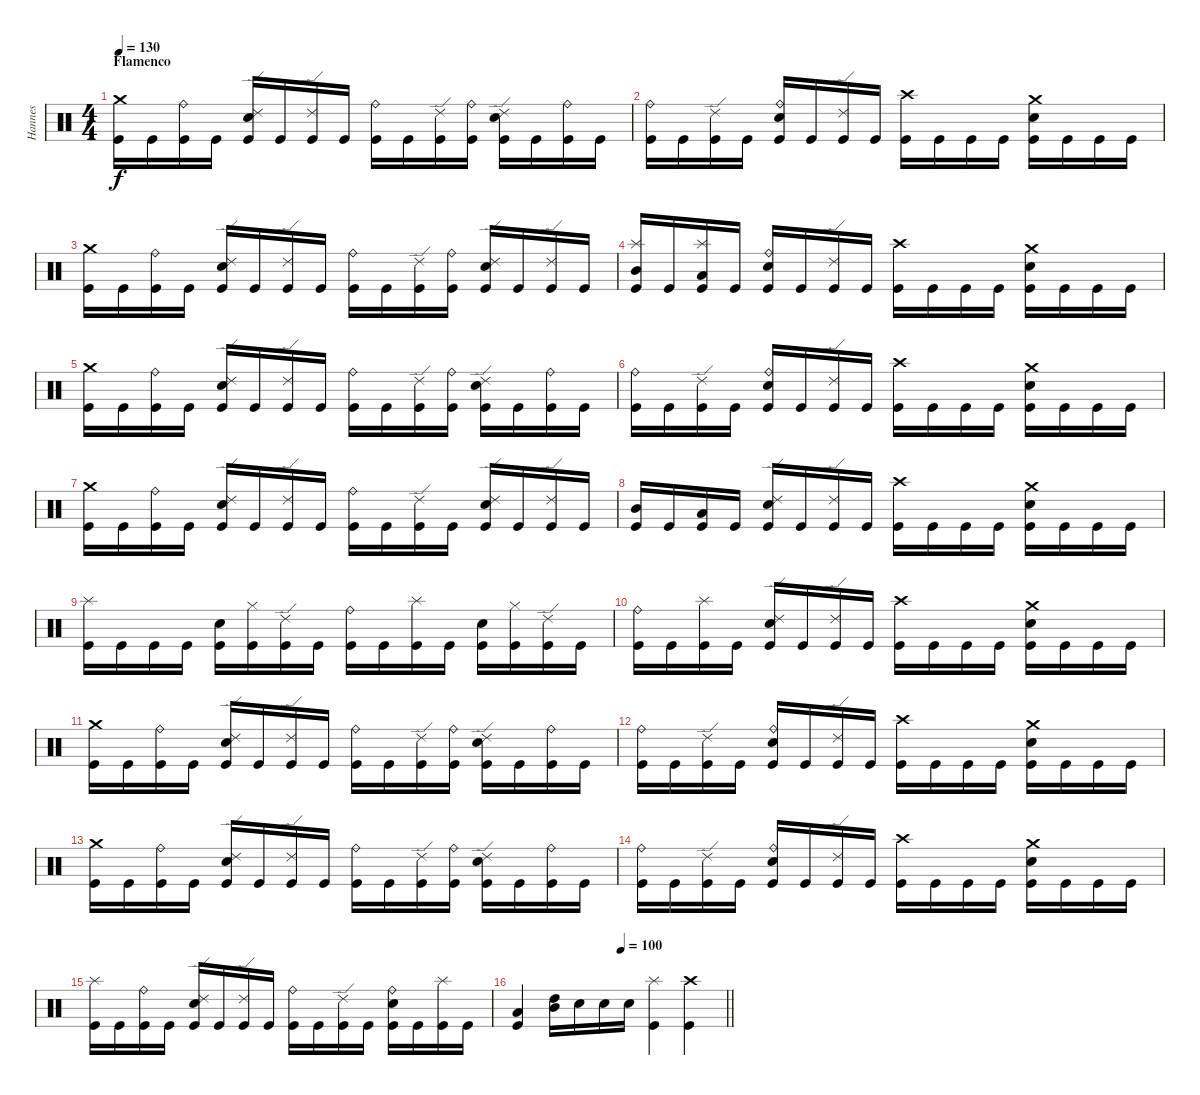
\track ("Hannes" "Hannes") {instrument percussion}
\staff {score}
\articulation defaults
\ts (4 4)
\section ("" "Flamenco")
\tempo 130
\clef neutral
\ks c
("Crash medium (hit)" "Kick (hit)").16{dy f} "Kick (hit)".16 ("Ride (bell)" "Kick (hit)").16 "Kick (hit)".16 ("Ride (edge) 2" "Electric Snare (hit)" "Kick (hit)").16 "Kick (hit)".16 ("Ride (edge) 2" "Kick (hit)").16 "Kick (hit)".16 ("Ride (bell)" "Kick (hit)").16 "Kick (hit)".16 ("Ride (edge) 2" "Kick (hit)").16 ("Ride (bell)" "Kick (hit)").16 ("Ride (edge) 2" "Electric Snare (hit)" "Kick (hit)").16 "Kick (hit)".16 ("Ride (bell)" "Kick (hit)").16 "Kick (hit)".16 |
("Ride (bell)" "Kick (hit)").16 "Kick (hit)".16 ("Ride (edge) 2" "Kick (hit)").16 "Kick (hit)".16 ("Ride (bell)" "Electric Snare (hit)" "Kick (hit)").16 "Kick (hit)".16 ("Ride (edge) 2" "Kick (hit)").16 "Kick (hit)".16 ("Crash high (hit)" "Kick (hit)").16 "Kick (hit)".16 "Kick (hit)".16 "Kick (hit)".16 ("Crash medium (hit)" "Electric Snare (hit)" "Kick (hit)").16 "Kick (hit)".16 "Kick (hit)".16 "Kick (hit)".16 |
("Crash medium (hit)" "Kick (hit)").16 "Kick (hit)".16 ("Ride (bell)" "Kick (hit)").16 "Kick (hit)".16 ("Ride (edge) 2" "Electric Snare (hit)" "Kick (hit)").16 "Kick (hit)".16 ("Ride (edge) 2" "Kick (hit)").16 "Kick (hit)".16 ("Ride (bell)" "Kick (hit)").16 "Kick (hit)".16 ("Ride (edge) 2" "Kick (hit)").16 ("Ride (bell)" "Kick (hit)").16 ("Ride (edge) 2" "Electric Snare (hit)" "Kick (hit)").16 "Kick (hit)".16 ("Ride (edge) 2" "Kick (hit)").16 "Kick (hit)".16 |
("Splash (hit)" "Mid Tom (hit)" "Kick (hit)").16 "Kick (hit)".16 ("Splash (hit)" "Low Tom (hit)" "Kick (hit)").16 "Kick (hit)".16 ("Ride (bell)" "Electric Snare (hit)" "Kick (hit)").16 "Kick (hit)".16 ("Ride (edge) 2" "Kick (hit)").16 "Kick (hit)".16 ("Crash high (hit)" "Kick (hit)").16 "Kick (hit)".16 "Kick (hit)".16 "Kick (hit)".16 ("Crash medium (hit)" "Electric Snare (hit)" "Kick (hit)").16 "Kick (hit)".16 "Kick (hit)".16 "Kick (hit)".16 |
("Crash medium (hit)" "Kick (hit)").16 "Kick (hit)".16 ("Ride (bell)" "Kick (hit)").16 "Kick (hit)".16 ("Ride (edge) 2" "Electric Snare (hit)" "Kick (hit)").16 "Kick (hit)".16 ("Ride (edge) 2" "Kick (hit)").16 "Kick (hit)".16 ("Ride (bell)" "Kick (hit)").16 "Kick (hit)".16 ("Ride (edge) 2" "Kick (hit)").16 ("Ride (bell)" "Kick (hit)").16 ("Ride (edge) 2" "Electric Snare (hit)" "Kick (hit)").16 "Kick (hit)".16 ("Ride (bell)" "Kick (hit)").16 "Kick (hit)".16 |
("Ride (bell)" "Kick (hit)").16 "Kick (hit)".16 ("Ride (edge) 2" "Kick (hit)").16 "Kick (hit)".16 ("Ride (bell)" "Electric Snare (hit)" "Kick (hit)").16 "Kick (hit)".16 ("Ride (edge) 2" "Kick (hit)").16 "Kick (hit)".16 ("Crash high (hit)" "Kick (hit)").16 "Kick (hit)".16 "Kick (hit)".16 "Kick (hit)".16 ("Crash medium (hit)" "Electric Snare (hit)" "Kick (hit)").16 "Kick (hit)".16 "Kick (hit)".16 "Kick (hit)".16 |
("Crash medium (hit)" "Kick (hit)").16 "Kick (hit)".16 ("Ride (bell)" "Kick (hit)").16 "Kick (hit)".16 ("Ride (edge) 2" "Electric Snare (hit)" "Kick (hit)").16 "Kick (hit)".16 ("Ride (edge) 2" "Kick (hit)").16 "Kick (hit)".16 ("Ride (bell)" "Kick (hit)").16 "Kick (hit)".16 ("Ride (edge) 2" "Kick (hit)").16 "Kick (hit)".16 ("Ride (edge) 2" "Electric Snare (hit)" "Kick (hit)").16 "Kick (hit)".16 ("Ride (edge) 2" "Kick (hit)").16 "Kick (hit)".16 |
("Mid Tom (hit)" "Kick (hit)").16 "Kick (hit)".16 ("Low Tom (hit)" "Kick (hit)").16 "Kick (hit)".16 ("Ride (edge) 2" "Electric Snare (hit)" "Kick (hit)").16 "Kick (hit)".16 ("Ride (edge) 2" "Kick (hit)").16 "Kick (hit)".16 ("Crash high (hit)" "Kick (hit)").16 "Kick (hit)".16 "Kick (hit)".16 "Kick (hit)".16 ("Crash medium (hit)" "Electric Snare (hit)" "Kick (hit)").16 "Kick (hit)".16 "Kick (hit)".16 "Kick (hit)".16 |
("Splash (hit)" "Kick (hit)").16 "Kick (hit)".16 "Kick (hit)".16 "Kick (hit)".16 ("Electric Snare (hit)" "Kick (hit)").16 ("Hi-Hat (closed)" "Kick (hit)").16 ("Ride (edge) 2" "Kick (hit)").16 "Kick (hit)".16 ("Ride (bell)" "Kick (hit)").16 "Kick (hit)".16 ("Splash (hit)" "Kick (hit)").16 "Kick (hit)".16 ("Electric Snare (hit)" "Kick (hit)").16 ("Hi-Hat (closed)" "Kick (hit)").16 ("Ride (edge) 2" "Kick (hit)").16 "Kick (hit)".16 |
("Ride (bell)" "Kick (hit)").16 "Kick (hit)".16 ("Splash (hit)" "Kick (hit)").16 "Kick (hit)".16 ("Ride (edge) 2" "Electric Snare (hit)" "Kick (hit)").16 "Kick (hit)".16 ("Ride (edge) 2" "Kick (hit)").16 "Kick (hit)".16 ("Crash high (hit)" "Kick (hit)").16 "Kick (hit)".16 "Kick (hit)".16 "Kick (hit)".16 ("Crash medium (hit)" "Electric Snare (hit)" "Kick (hit)").16 "Kick (hit)".16 "Kick (hit)".16 "Kick (hit)".16 |
("Crash medium (hit)" "Kick (hit)").16 "Kick (hit)".16 ("Ride (bell)" "Kick (hit)").16 "Kick (hit)".16 ("Ride (edge) 2" "Electric Snare (hit)" "Kick (hit)").16 "Kick (hit)".16 ("Ride (edge) 2" "Kick (hit)").16 "Kick (hit)".16 ("Ride (bell)" "Kick (hit)").16 "Kick (hit)".16 ("Ride (edge) 2" "Kick (hit)").16 ("Ride (bell)" "Kick (hit)").16 ("Ride (edge) 2" "Electric Snare (hit)" "Kick (hit)").16 "Kick (hit)".16 ("Ride (bell)" "Kick (hit)").16 "Kick (hit)".16 |
("Ride (bell)" "Kick (hit)").16 "Kick (hit)".16 ("Ride (edge) 2" "Kick (hit)").16 "Kick (hit)".16 ("Ride (bell)" "Electric Snare (hit)" "Kick (hit)").16 "Kick (hit)".16 ("Ride (edge) 2" "Kick (hit)").16 "Kick (hit)".16 ("Crash high (hit)" "Kick (hit)").16 "Kick (hit)".16 "Kick (hit)".16 "Kick (hit)".16 ("Crash medium (hit)" "Electric Snare (hit)" "Kick (hit)").16 "Kick (hit)".16 "Kick (hit)".16 "Kick (hit)".16 |
("Crash medium (hit)" "Kick (hit)").16 "Kick (hit)".16 ("Ride (bell)" "Kick (hit)").16 "Kick (hit)".16 ("Ride (edge) 2" "Electric Snare (hit)" "Kick (hit)").16 "Kick (hit)".16 ("Ride (edge) 2" "Kick (hit)").16 "Kick (hit)".16 ("Ride (bell)" "Kick (hit)").16 "Kick (hit)".16 ("Ride (edge) 2" "Kick (hit)").16 ("Ride (bell)" "Kick (hit)").16 ("Ride (edge) 2" "Electric Snare (hit)" "Kick (hit)").16 "Kick (hit)".16 ("Ride (bell)" "Kick (hit)").16 "Kick (hit)".16 |
("Ride (bell)" "Kick (hit)").16 "Kick (hit)".16 ("Ride (edge) 2" "Kick (hit)").16 "Kick (hit)".16 ("Ride (bell)" "Electric Snare (hit)" "Kick (hit)").16 "Kick (hit)".16 ("Ride (edge) 2" "Kick (hit)").16 "Kick (hit)".16 ("Crash high (hit)" "Kick (hit)").16 "Kick (hit)".16 "Kick (hit)".16 "Kick (hit)".16 ("Crash medium (hit)" "Electric Snare (hit)" "Kick (hit)").16 "Kick (hit)".16 "Kick (hit)".16 "Kick (hit)".16 |
("Splash (hit)" "Kick (hit)").16 "Kick (hit)".16 ("Ride (bell)" "Kick (hit)").16 "Kick (hit)".16 ("Ride (edge) 2" "Electric Snare (hit)" "Kick (hit)").16 "Kick (hit)".16 ("Ride (edge) 2" "Kick (hit)").16 "Kick (hit)".16 ("Ride (bell)" "Kick (hit)").16 "Kick (hit)".16 ("Ride (edge) 2" "Kick (hit)").16 "Kick (hit)".16 ("Ride (bell)" "Electric Snare (hit)" "Kick (hit)").16 "Kick (hit)".16 ("Splash (hit)" "Kick (hit)").16 "Kick (hit)".16 |
\tempo (100 0.5)
\barLineRight lightlight
("Low Tom (hit)" "Kick (hit)").4 ("Mid Tom (hit)" "High Tom (hit)").16 "Electric Snare (hit)".16 "Electric Snare (hit)".16 "Electric Snare (hit)".16 ("Splash (hit)" "Kick (hit)").4 ("Crash high (hit)" "Kick (hit)").4
